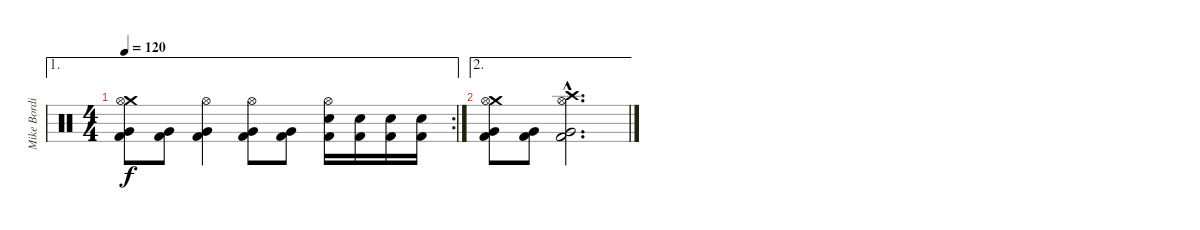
\track ("Mike Bordin" "Mike Bordi") {instrument percussion}
\staff {score}
\articulation defaults
\ae 1
\rc 2
\ts (4 4)
\tempo 120
\clef neutral
\ks c
("Crash medium (hit)" "Hi-Hat (open)" "Very Low Tom (hit)" "Kick (hit) 2").8{dy f} ("Very Low Tom (hit)" "Kick (hit) 2").8 ("Hi-Hat (open)" "Very Low Tom (hit)" "Kick (hit) 2").4 ("Hi-Hat (open)" "Very Low Tom (hit)" "Kick (hit) 2").8 ("Very Low Tom (hit)" "Kick (hit) 2").8 ("Hi-Hat (open)" "Electric Snare (hit)" "Kick (hit) 2").16 ("Electric Snare (hit)" "Kick (hit) 2").16 ("Electric Snare (hit)" "Kick (hit) 2").16 ("Electric Snare (hit)" "Kick (hit) 2").16 |
\ae 2
("Crash medium (hit)" "Hi-Hat (open)" "Very Low Tom (hit)" "Kick (hit) 2").8 ("Very Low Tom (hit)" "Kick (hit) 2").8 ("Crash high (hit)"{hac} "Hi-Hat (open)"{hac} "Very Low Tom (hit)"{hac} "Kick (hit) 2"{hac}).2{d}
